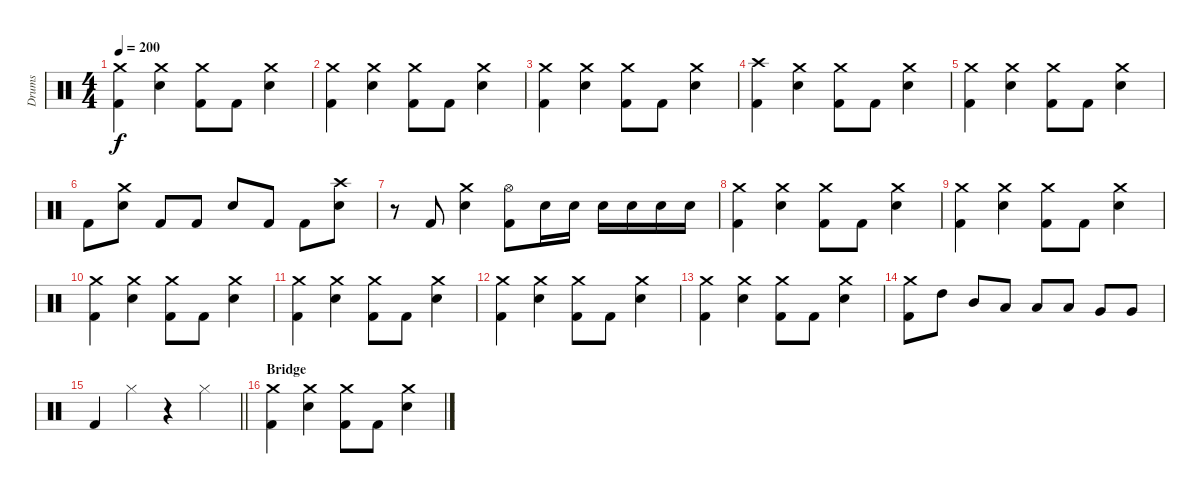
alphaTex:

\track ("Drums" "Drums") {instrument percussion}
\staff {score}
\articulation defaults
\ts (4 4)
\tempo 200
\clef neutral
\ks c
("Crash medium (hit)" "Kick (hit) 2").4{dy f} ("Crash medium (hit)" "Snare (hit) 2").4 ("Crash medium (hit)" "Kick (hit) 2").8 "Kick (hit) 2".8 ("Crash medium (hit)" "Snare (hit) 2").4 |
("Crash medium (hit)" "Kick (hit) 2").4 ("Crash medium (hit)" "Snare (hit) 2").4 ("Crash medium (hit)" "Kick (hit) 2").8 "Kick (hit) 2".8 ("Crash medium (hit)" "Snare (hit) 2").4 |
("Crash medium (hit)" "Kick (hit) 2").4 ("Crash medium (hit)" "Snare (hit) 2").4 ("Crash medium (hit)" "Kick (hit) 2").8 "Kick (hit) 2".8 ("Crash medium (hit)" "Snare (hit) 2").4 |
("Crash high (hit)" "Kick (hit) 2").4 ("Crash medium (hit)" "Snare (hit) 2").4 ("Crash medium (hit)" "Kick (hit) 2").8 "Kick (hit) 2".8 ("Crash medium (hit)" "Snare (hit) 2").4 |
("Crash medium (hit)" "Kick (hit) 2").4 ("Crash medium (hit)" "Snare (hit) 2").4 ("Crash medium (hit)" "Kick (hit) 2").8 "Kick (hit) 2".8 ("Crash medium (hit)" "Snare (hit) 2").4 |
"Kick (hit) 2".8 ("Crash medium (hit)" "Snare (hit) 2").8 "Kick (hit) 2".8 "Kick (hit) 2".8 "Snare (hit) 2".8 "Kick (hit) 2".8 "Kick (hit) 2".8 ("Crash high (hit)" "Snare (hit) 2").8 |
r.8 "Kick (hit) 2".8 ("Crash medium (hit)" "Snare (hit) 2").4 ("Hi-Hat (open)" "Kick (hit) 2").8 "Snare (hit) 2".16 "Snare (hit) 2".16 "Snare (hit) 2".16 "Snare (hit) 2".16 "Snare (hit) 2".16 "Snare (hit) 2".16 |
("Crash medium (hit)" "Kick (hit) 2").4 ("Crash medium (hit)" "Snare (hit) 2").4 ("Crash medium (hit)" "Kick (hit) 2").8 "Kick (hit) 2".8 ("Crash medium (hit)" "Snare (hit) 2").4 |
("Crash medium (hit)" "Kick (hit) 2").4 ("Crash medium (hit)" "Snare (hit) 2").4 ("Crash medium (hit)" "Kick (hit) 2").8 "Kick (hit) 2".8 ("Crash medium (hit)" "Snare (hit) 2").4 |
("Crash medium (hit)" "Kick (hit) 2").4 ("Crash medium (hit)" "Snare (hit) 2").4 ("Crash medium (hit)" "Kick (hit) 2").8 "Kick (hit) 2".8 ("Crash medium (hit)" "Snare (hit) 2").4 |
("Crash medium (hit)" "Kick (hit) 2").4 ("Crash medium (hit)" "Snare (hit) 2").4 ("Crash medium (hit)" "Kick (hit) 2").8 "Kick (hit) 2".8 ("Crash medium (hit)" "Snare (hit) 2").4 |
("Crash medium (hit)" "Kick (hit) 2").4 ("Crash medium (hit)" "Snare (hit) 2").4 ("Crash medium (hit)" "Kick (hit) 2").8 "Kick (hit) 2".8 ("Crash medium (hit)" "Snare (hit) 2").4 |
("Crash medium (hit)" "Kick (hit) 2").4 ("Crash medium (hit)" "Snare (hit) 2").4 ("Crash medium (hit)" "Kick (hit) 2").8 "Kick (hit) 2".8 ("Crash medium (hit)" "Snare (hit) 2").4 |
("Crash medium (hit)" "Kick (hit) 2").8 "High Tom (hit)".8 "Mid Tom (hit)".8 "Low Tom (hit)".8 "Low Tom (hit)".8 "Low Tom (hit)".8 "Very Low Tom (hit)".8 "Very Low Tom (hit)".8 |
\barLineRight lightlight "Kick (hit) 2".4 "Hi-Hat (closed)".4
r.4 "Hi-Hat (closed)".4 |
\section ("" "Bridge")
("Crash medium (hit)" "Kick (hit) 2").4 ("Crash medium (hit)" "Snare (hit) 2").4 ("Crash medium (hit)" "Kick (hit) 2").8 "Kick (hit) 2".8 ("Crash medium (hit)" "Snare (hit) 2").4
